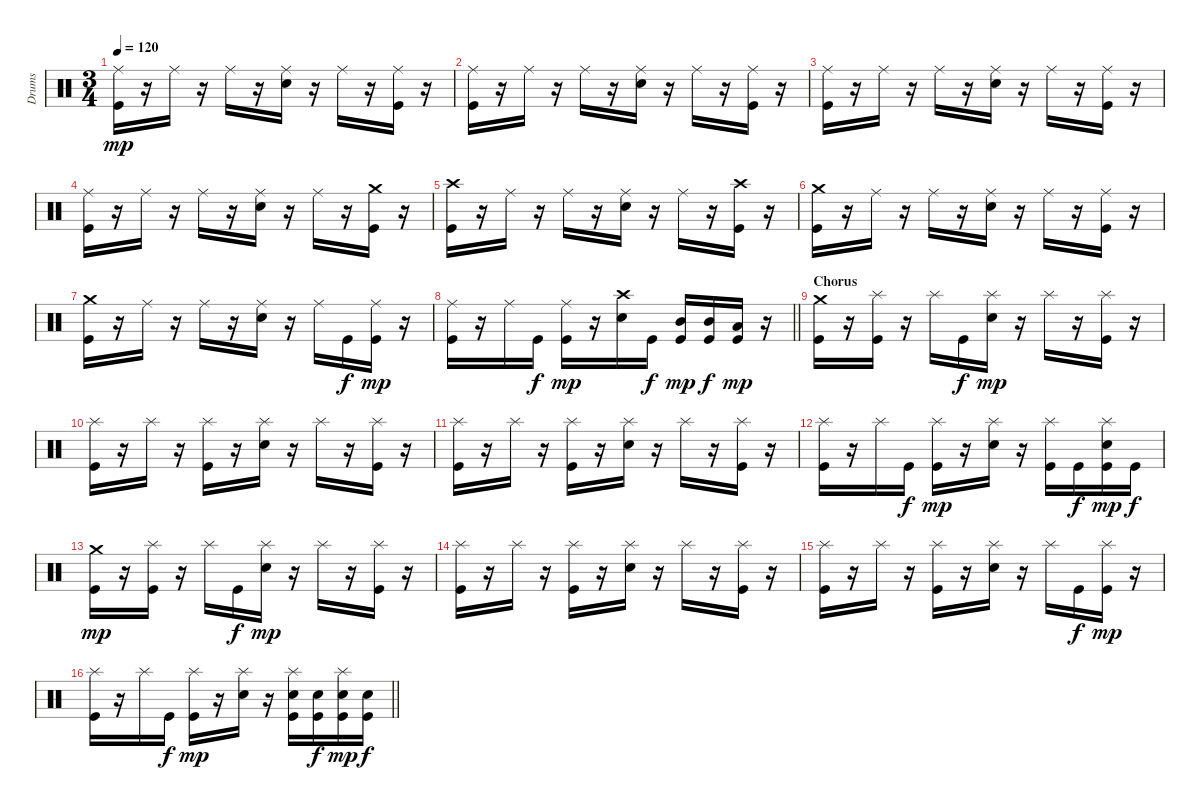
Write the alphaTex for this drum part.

\track ("Drums" "Drums") {instrument percussion}
\staff {score}
\articulation defaults
\ts (3 4)
\tempo 120
\clef neutral
\ks c
("Kick (hit)" "Ride (middle)").16{dy mp} r.16 "Ride (middle)".16 r.16 "Ride (middle)".16 r.16 ("Ride (middle)" "Snare (hit) 2").16 r.16 "Ride (middle)".16 r.16 ("Kick (hit)" "Ride (middle)").16 r.16 |
("Kick (hit)" "Ride (middle)").16 r.16 "Ride (middle)".16 r.16 "Ride (middle)".16 r.16 ("Ride (middle)" "Snare (hit) 2").16 r.16 "Ride (middle)".16 r.16 ("Kick (hit)" "Ride (middle)").16 r.16 |
("Kick (hit)" "Ride (middle)").16 r.16 "Ride (middle)".16 r.16 "Ride (middle)".16 r.16 ("Ride (middle)" "Snare (hit) 2").16 r.16 "Ride (middle)".16 r.16 ("Kick (hit)" "Ride (middle)").16 r.16 |
("Kick (hit)" "Ride (middle)").16 r.16 "Ride (middle)".16 r.16 "Ride (middle)".16 r.16 ("Ride (middle)" "Snare (hit) 2").16 r.16 "Ride (middle)".16 r.16 ("Kick (hit)" "Crash medium (hit)").16 r.16 |
("Kick (hit)" "Crash high (hit)").16 r.16 "Ride (middle)".16 r.16 "Ride (middle)".16 r.16 ("Ride (middle)" "Snare (hit) 2").16 r.16 "Ride (middle)".16 r.16 ("Kick (hit)" "Crash high (hit)").16 r.16 |
("Kick (hit)" "Crash medium (hit)").16 r.16 "Ride (middle)".16 r.16 "Ride (middle)".16 r.16 ("Ride (middle)" "Snare (hit) 2").16 r.16 "Ride (middle)".16 r.16 ("Kick (hit)" "Ride (middle)").16 r.16 |
("Kick (hit)" "Crash medium (hit)").16 r.16 "Ride (middle)".16 r.16 "Ride (middle)".16 r.16 ("Ride (middle)" "Snare (hit) 2").16 r.16 "Ride (middle)".16 "Kick (hit)".16{dy f} ("Kick (hit)" "Ride (middle)").16{dy mp} r.16 |
\barLineRight lightlight
("Kick (hit)" "Ride (middle)").16 r.16 "Ride (middle)".16 "Kick (hit)".16{dy f} ("Kick (hit)" "Ride (middle)").16{dy mp} r.16 ("Crash high (hit)" "Snare (hit) 2").16 "Kick (hit)".16{dy f} ("Kick (hit)" "Mid Tom (hit)").16{dy mp} ("Kick (hit)" "Mid Tom (hit)").16{dy f} ("Kick (hit)" "Low Tom (hit)").16{dy mp} r.16 |
\section ("" "Chorus")
("Kick (hit)" "Crash medium (hit)").16 r.16 ("Kick (hit)" "Splash (hit)").16 r.16 "Splash (hit)".16 "Kick (hit)".16{dy f} ("Splash (hit)" "Snare (hit) 2").16{dy mp} r.16 "Splash (hit)".16 r.16 ("Kick (hit)" "Splash (hit)").16 r.16 |
("Kick (hit)" "Splash (hit)").16 r.16 "Splash (hit)".16 r.16 ("Kick (hit)" "Splash (hit)").16 r.16 ("Splash (hit)" "Snare (hit) 2").16 r.16 "Splash (hit)".16 r.16 ("Kick (hit)" "Splash (hit)").16 r.16 |
("Kick (hit)" "Splash (hit)").16 r.16 "Splash (hit)".16 r.16 ("Kick (hit)" "Splash (hit)").16 r.16 ("Splash (hit)" "Snare (hit) 2").16 r.16 "Splash (hit)".16 r.16 ("Kick (hit)" "Splash (hit)").16 r.16 |
("Kick (hit)" "Splash (hit)").16 r.16 "Splash (hit)".16 "Kick (hit)".16{dy f} ("Kick (hit)" "Splash (hit)").16{dy mp} r.16 ("Splash (hit)" "Snare (hit) 2").16 r.16 ("Kick (hit)" "Splash (hit)").16 "Kick (hit)".16{dy f} ("Kick (hit)" "Splash (hit)" "Snare (hit) 2").16{dy mp} "Kick (hit)".16{dy f} |
("Kick (hit)" "Crash medium (hit)").16{dy mp} r.16 ("Kick (hit)" "Splash (hit)").16 r.16 "Splash (hit)".16 "Kick (hit)".16{dy f} ("Splash (hit)" "Snare (hit) 2").16{dy mp} r.16 "Splash (hit)".16 r.16 ("Kick (hit)" "Splash (hit)").16 r.16 |
("Kick (hit)" "Splash (hit)").16 r.16 "Splash (hit)".16 r.16 ("Kick (hit)" "Splash (hit)").16 r.16 ("Splash (hit)" "Snare (hit) 2").16 r.16 "Splash (hit)".16 r.16 ("Kick (hit)" "Splash (hit)").16 r.16 |
("Kick (hit)" "Splash (hit)").16 r.16 "Splash (hit)".16 r.16 ("Kick (hit)" "Splash (hit)").16 r.16 ("Splash (hit)" "Snare (hit) 2").16 r.16 "Splash (hit)".16 "Kick (hit)".16{dy f} ("Kick (hit)" "Splash (hit)").16{dy mp} r.16 |
\barLineRight lightlight
("Kick (hit)" "Splash (hit)").16 r.16 "Splash (hit)".16 "Kick (hit)".16{dy f} ("Kick (hit)" "Splash (hit)").16{dy mp} r.16 ("Splash (hit)" "Snare (hit) 2").16 r.16 ("Kick (hit)" "Splash (hit)" "Snare (hit) 2").16 ("Kick (hit)" "Snare (hit) 2").16{dy f} ("Kick (hit)" "Splash (hit)" "Snare (hit) 2").16{dy mp} ("Kick (hit)" "Snare (hit) 2").16{dy f}
